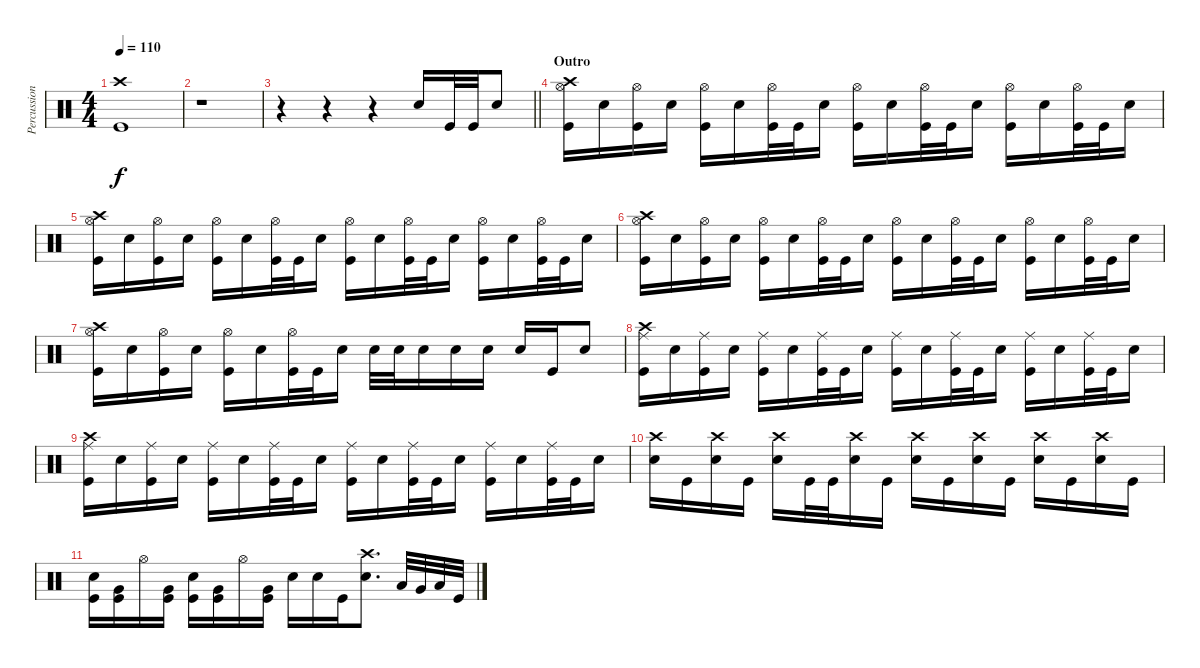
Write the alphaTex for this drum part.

\track ("Percussion" "Percussion") {instrument percussion}
\staff {score}
\articulation defaults
\ts (4 4)
\tempo 110
\clef neutral
\ks c
("Crash high (hit)" "Kick (hit)").1{dy f} |
r.1 |
\barLineRight lightlight
r.4 r.4 r.4 "Snare (hit) 2".16 "Kick (hit)".32 "Kick (hit)".32 "Snare (hit) 2".8 |
\section ("" "Outro")
("Crash high (hit)" "Hi-Hat (open)" "Kick (hit)").16 "Snare (hit) 2".16 ("Hi-Hat (open)" "Kick (hit)").16 "Snare (hit) 2".16 ("Hi-Hat (open)" "Kick (hit)").16 "Snare (hit) 2".16 ("Hi-Hat (open)" "Kick (hit)").32 "Kick (hit)".32 "Snare (hit) 2".16 ("Hi-Hat (open)" "Kick (hit)").16 "Snare (hit) 2".16 ("Hi-Hat (open)" "Kick (hit)").32 "Kick (hit)".32 "Snare (hit) 2".16 ("Hi-Hat (open)" "Kick (hit)").16 "Snare (hit) 2".16 ("Hi-Hat (open)" "Kick (hit)").32 "Kick (hit)".32 "Snare (hit) 2".16 |
("Crash high (hit)" "Hi-Hat (open)" "Kick (hit)").16 "Snare (hit) 2".16 ("Hi-Hat (open)" "Kick (hit)").16 "Snare (hit) 2".16 ("Hi-Hat (open)" "Kick (hit)").16 "Snare (hit) 2".16 ("Hi-Hat (open)" "Kick (hit)").32 "Kick (hit)".32 "Snare (hit) 2".16 ("Hi-Hat (open)" "Kick (hit)").16 "Snare (hit) 2".16 ("Hi-Hat (open)" "Kick (hit)").32 "Kick (hit)".32 "Snare (hit) 2".16 ("Hi-Hat (open)" "Kick (hit)").16 "Snare (hit) 2".16 ("Hi-Hat (open)" "Kick (hit)").32 "Kick (hit)".32 "Snare (hit) 2".16 |
("Crash high (hit)" "Hi-Hat (open)" "Kick (hit)").16 "Snare (hit) 2".16 ("Hi-Hat (open)" "Kick (hit)").16 "Snare (hit) 2".16 ("Hi-Hat (open)" "Kick (hit)").16 "Snare (hit) 2".16 ("Hi-Hat (open)" "Kick (hit)").32 "Kick (hit)".32 "Snare (hit) 2".16 ("Hi-Hat (open)" "Kick (hit)").16 "Snare (hit) 2".16 ("Hi-Hat (open)" "Kick (hit)").32 "Kick (hit)".32 "Snare (hit) 2".16 ("Hi-Hat (open)" "Kick (hit)").16 "Snare (hit) 2".16 ("Hi-Hat (open)" "Kick (hit)").32 "Kick (hit)".32 "Snare (hit) 2".16 |
("Crash high (hit)" "Hi-Hat (open)" "Kick (hit)").16 "Snare (hit) 2".16 ("Hi-Hat (open)" "Kick (hit)").16 "Snare (hit) 2".16 ("Hi-Hat (open)" "Kick (hit)").16 "Snare (hit) 2".16 ("Hi-Hat (open)" "Kick (hit)").32 "Kick (hit)".32 "Snare (hit) 2".16 "Snare (hit) 2".32 "Snare (hit) 2".32 "Snare (hit) 2".16 "Snare (hit) 2".16 "Snare (hit) 2".16 "Snare (hit) 2".16 "Kick (hit)".16 "Snare (hit) 2".8 |
("Crash high (hit)" "Ride (middle)" "Kick (hit)").16 "Snare (hit) 2".16 ("Ride (middle)" "Kick (hit)").16 "Snare (hit) 2".16 ("Ride (middle)" "Kick (hit)").16 "Snare (hit) 2".16 ("Ride (middle)" "Kick (hit)").32 "Kick (hit)".32 "Snare (hit) 2".16 ("Ride (middle)" "Kick (hit)").16 "Snare (hit) 2".16 ("Ride (middle)" "Kick (hit)").32 "Kick (hit)".32 "Snare (hit) 2".16 ("Ride (middle)" "Kick (hit)").16 "Snare (hit) 2".16 ("Ride (middle)" "Kick (hit)").32 "Kick (hit)".32 "Snare (hit) 2".16 |
("Crash high (hit)" "Ride (middle)" "Kick (hit)").16 "Snare (hit) 2".16 ("Ride (middle)" "Kick (hit)").16 "Snare (hit) 2".16 ("Ride (middle)" "Kick (hit)").16 "Snare (hit) 2".16 ("Ride (middle)" "Kick (hit)").32 "Kick (hit)".32 "Snare (hit) 2".16 ("Ride (middle)" "Kick (hit)").16 "Snare (hit) 2".16 ("Ride (middle)" "Kick (hit)").32 "Kick (hit)".32 "Snare (hit) 2".16 ("Ride (middle)" "Kick (hit)").16 "Snare (hit) 2".16 ("Ride (middle)" "Kick (hit)").32 "Kick (hit)".32 "Snare (hit) 2".16 |
("Crash high (hit)" "Snare (hit) 2").16 "Kick (hit)".16 ("Crash high (hit)" "Snare (hit) 2").16 "Kick (hit)".16 ("Crash high (hit)" "Snare (hit) 2").16 "Kick (hit)".32 "Kick (hit)".32 ("Crash high (hit)" "Snare (hit) 2").16 "Kick (hit)".16 ("Crash high (hit)" "Snare (hit) 2").16 "Kick (hit)".16 ("Crash high (hit)" "Snare (hit) 2").16 "Kick (hit)".16 ("Crash high (hit)" "Snare (hit) 2").16 "Kick (hit)".16 ("Crash high (hit)" "Snare (hit) 2").16 "Kick (hit)".16 |
("Snare (hit) 2" "Kick (hit)").16 ("Very Low Tom (hit)" "Kick (hit)").16 "Hi-Hat (open)".16 ("Very Low Tom (hit)" "Kick (hit)").16 ("Snare (hit) 2" "Kick (hit)").16 ("Very Low Tom (hit)" "Kick (hit)").16 "Hi-Hat (open)".16 ("Very Low Tom (hit)" "Kick (hit)").16 "Snare (hit) 2".16 "Snare (hit) 2".16 "Kick (hit)".16 ("Crash high (hit)" "Snare (hit) 2").8{d} "Low Tom (hit)".32 "Very Low Tom (hit)".32 "Low Floor Tom (hit)".32 "Kick (hit)".32
